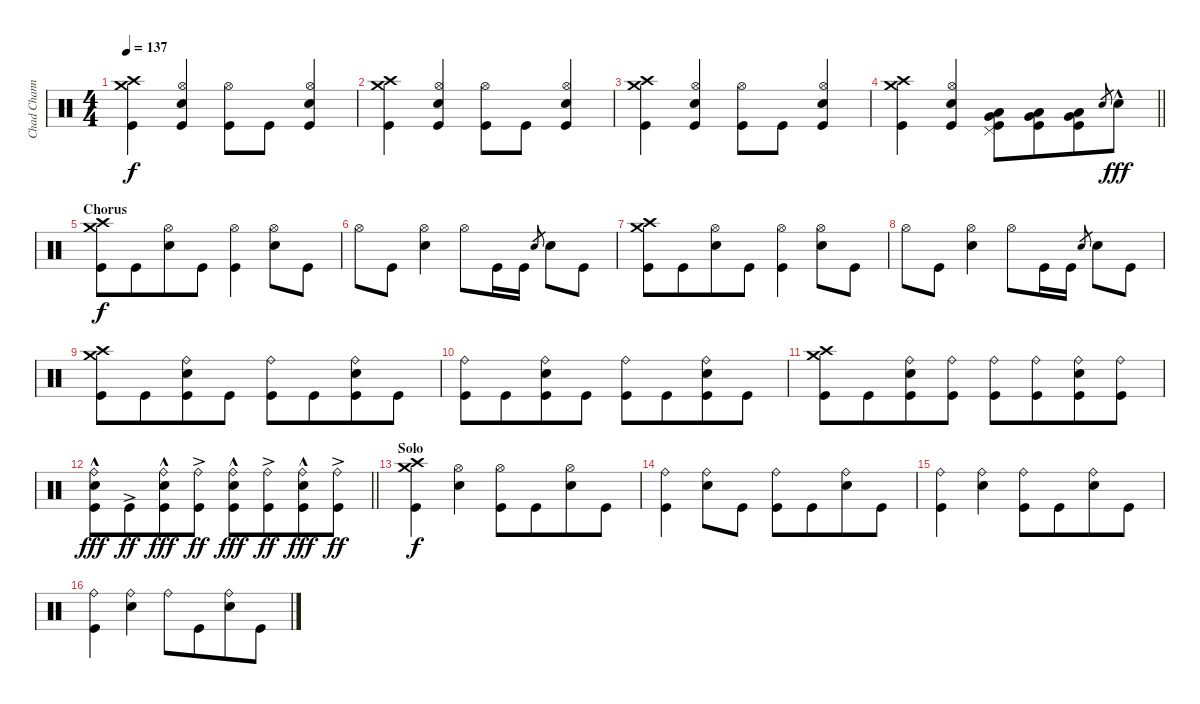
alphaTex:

\track ("Chad Channing" "Chad Chann") {instrument percussion}
\staff {score}
\articulation defaults
\ts (4 4)
\tempo 137
\clef neutral
\ks c
("Crash medium (hit)" "Crash high (hit)" "Kick (hit)").4{dy f} ("Hi-Hat (open)" "Snare (hit) 2" "Kick (hit)").4 ("Hi-Hat (open)" "Kick (hit)").8 "Kick (hit)".8 ("Hi-Hat (open)" "Snare (hit) 2" "Kick (hit)").4 |
("Crash medium (hit)" "Crash high (hit)" "Kick (hit)").4 ("Hi-Hat (open)" "Snare (hit) 2" "Kick (hit)").4 ("Hi-Hat (open)" "Kick (hit)").8 "Kick (hit)".8 ("Hi-Hat (open)" "Snare (hit) 2" "Kick (hit)").4 |
("Crash medium (hit)" "Crash high (hit)" "Kick (hit)").4 ("Hi-Hat (open)" "Snare (hit) 2" "Kick (hit)").4 ("Hi-Hat (open)" "Kick (hit)").8 "Kick (hit)".8 ("Hi-Hat (open)" "Snare (hit) 2" "Kick (hit)").4 |
\barLineRight lightlight
("Crash medium (hit)" "Crash high (hit)" "Kick (hit)").4 ("Hi-Hat (open)" "Snare (hit) 2" "Kick (hit)").4 ("Pedal Hi-Hat (hit)" "Very Low Tom (hit)" "Low Floor Tom (hit)" "Kick (hit)").8{beam Down} ("Very Low Tom (hit)" "Low Floor Tom (hit)" "Kick (hit)").8{beam Down beam merge} ("Very Low Tom (hit)" "Low Floor Tom (hit)" "Kick (hit)").8{beam Down} "Snare (hit) 2".8{gr} "Snare (hit) 2"{hac}.8{dy fff beam Down} |
\section ("" "Chorus")
("Crash high (hit)" "Crash medium (hit)" "Kick (hit)").8{dy f} "Kick (hit)".8{beam merge} ("Hi-Hat (open)" "Snare (hit) 2").8 "Kick (hit)".8 ("Hi-Hat (open)" "Kick (hit)").4 ("Hi-Hat (open)" "Snare (hit) 2").8 "Kick (hit)".8 |
"Hi-Hat (open)".8 "Kick (hit)".8 ("Hi-Hat (open)" "Snare (hit) 2").4 "Hi-Hat (open)".8 "Kick (hit)".16 "Kick (hit)".16 "Snare (hit) 2".8{gr} "Snare (hit) 2".8{beam Down} "Kick (hit)".8{beam Down} |
("Crash high (hit)" "Crash medium (hit)" "Kick (hit)").8 "Kick (hit)".8{beam merge} ("Hi-Hat (open)" "Snare (hit) 2").8 "Kick (hit)".8 ("Hi-Hat (open)" "Kick (hit)").4 ("Hi-Hat (open)" "Snare (hit) 2").8 "Kick (hit)".8 |
"Hi-Hat (open)".8 "Kick (hit)".8 ("Hi-Hat (open)" "Snare (hit) 2").4 "Hi-Hat (open)".8 "Kick (hit)".16 "Kick (hit)".16 "Snare (hit) 2".8{gr} "Snare (hit) 2".8{beam Down} "Kick (hit)".8{beam Down} |
("Crash medium (hit)" "Crash high (hit)" "Kick (hit)").8 "Kick (hit)".8{beam merge} ("Ride (bell)" "Snare (hit) 2" "Kick (hit)").8 "Kick (hit)".8 ("Ride (bell)" "Kick (hit)").8 "Kick (hit)".8{beam merge} ("Ride (bell)" "Snare (hit) 2" "Kick (hit)").8 "Kick (hit)".8 |
("Ride (bell)" "Kick (hit)").8 "Kick (hit)".8{beam merge} ("Ride (bell)" "Snare (hit) 2" "Kick (hit)").8 "Kick (hit)".8 ("Ride (bell)" "Kick (hit)").8 "Kick (hit)".8{beam merge} ("Ride (bell)" "Snare (hit) 2" "Kick (hit)").8 "Kick (hit)".8 |
("Crash medium (hit)" "Crash high (hit)" "Kick (hit)").8 "Kick (hit)".8{beam merge} ("Ride (bell)" "Snare (hit) 2" "Kick (hit)").8 ("Ride (bell)" "Kick (hit)").8 ("Ride (bell)" "Kick (hit)").8 ("Ride (bell)" "Kick (hit)").8{beam merge} ("Ride (bell)" "Snare (hit) 2" "Kick (hit)").8 ("Ride (bell)" "Kick (hit)").8 |
\barLineRight lightlight
("Ride (bell)" "Snare (hit) 2" "Kick (hit)"{hac}).8{dy fff} "Kick (hit)"{ac}.8{dy ff beam merge} ("Ride (bell)" "Snare (hit) 2" "Kick (hit)"{hac}).8{dy fff} ("Ride (bell)" "Kick (hit)"{ac}).8{dy ff} ("Ride (bell)" "Snare (hit) 2" "Kick (hit)"{hac}).8{dy fff} ("Ride (bell)" "Kick (hit)"{ac}).8{dy ff beam merge} ("Ride (bell)" "Snare (hit) 2" "Kick (hit)"{hac}).8{dy fff} ("Ride (bell)" "Kick (hit)"{ac}).8{dy ff} |
\section ("" "Solo")
("Crash medium (hit)" "Crash high (hit)" "Kick (hit)").4{dy f} ("Hi-Hat (open)" "Snare (hit) 2").4 ("Hi-Hat (open)" "Kick (hit)").8 "Kick (hit)".8{beam merge} ("Hi-Hat (open)" "Snare (hit) 2").8 "Kick (hit)".8 |
("Ride (bell)" "Kick (hit)").4 ("Ride (bell)" "Snare (hit) 2").8 "Kick (hit)".8 ("Ride (bell)" "Kick (hit)").8 "Kick (hit)".8{beam merge} ("Ride (bell)" "Snare (hit) 2").8 "Kick (hit)".8 |
("Ride (bell)" "Kick (hit)").4 ("Ride (bell)" "Snare (hit) 2").4 ("Ride (bell)" "Kick (hit)").8 "Kick (hit)".8{beam merge} ("Ride (bell)" "Snare (hit) 2").8 "Kick (hit)".8 |
("Ride (bell)" "Kick (hit)").4 ("Ride (bell)" "Snare (hit) 2").4 "Ride (bell)".8 "Kick (hit)".8{beam merge} ("Ride (bell)" "Snare (hit) 2").8 "Kick (hit)".8
